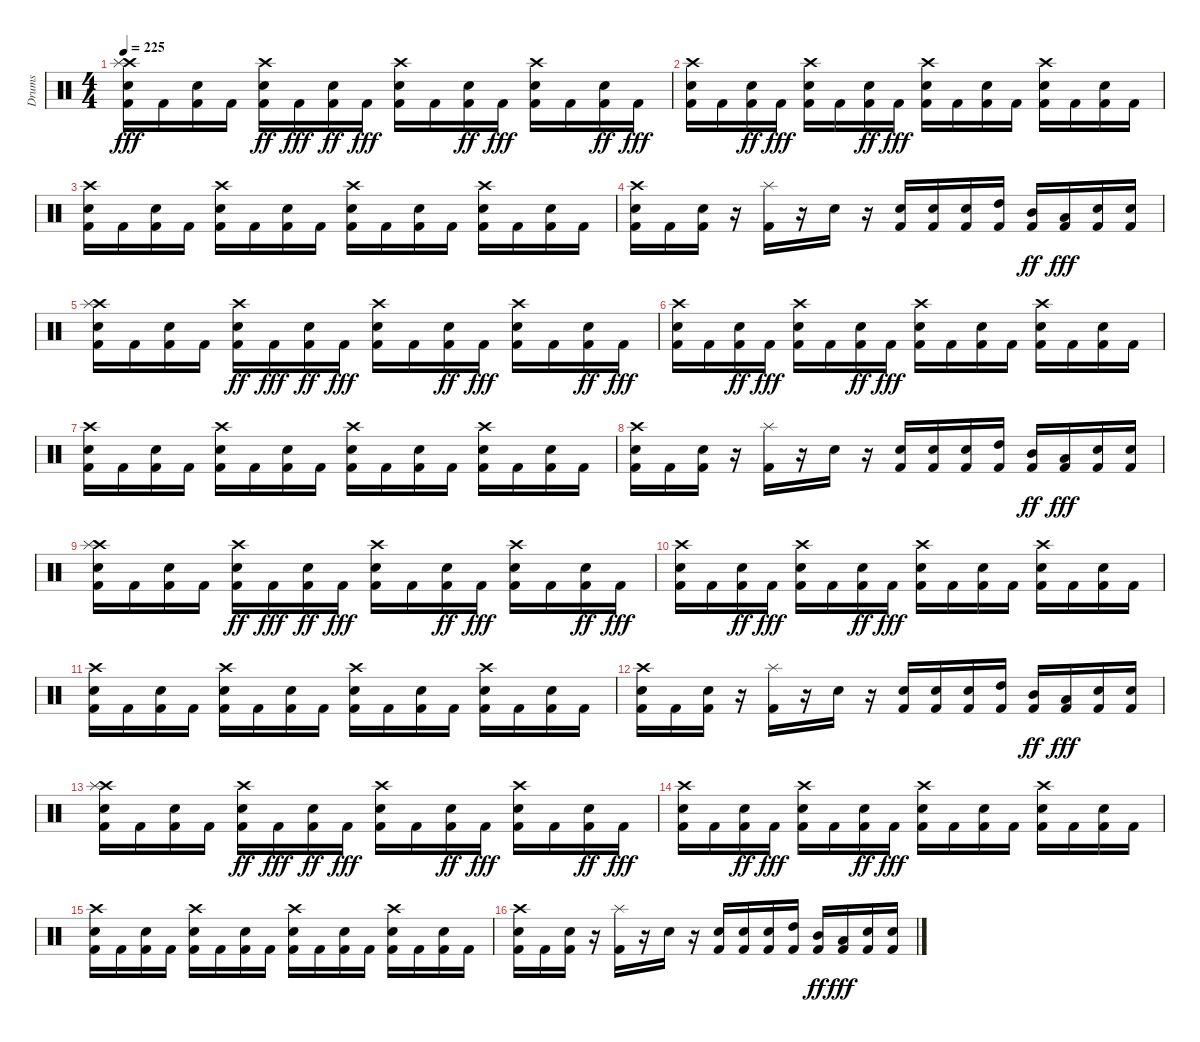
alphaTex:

\track ("Drums" "Drums") {instrument percussion}
\staff {score}
\articulation defaults
\ts (4 4)
\tempo 225
\clef neutral
\ks c
("Kick (hit) 2" "Snare (hit) 2" "Crash high (hit)" "Splash (hit)").16{dy fff} "Kick (hit) 2".16 ("Snare (hit) 2" "Kick (hit) 2").16 "Kick (hit) 2".16 ("Crash high (hit)" "Kick (hit) 2" "Snare (hit) 2").16{dy ff} "Kick (hit) 2".16{dy fff} ("Kick (hit) 2" "Snare (hit) 2").16{dy ff} "Kick (hit) 2".16{dy fff} ("Kick (hit) 2" "Snare (hit) 2" "Crash high (hit)").16 "Kick (hit) 2".16 ("Kick (hit) 2" "Snare (hit) 2").16{dy ff} "Kick (hit) 2".16{dy fff} ("Kick (hit) 2" "Snare (hit) 2" "Crash high (hit)").16 "Kick (hit) 2".16 ("Kick (hit) 2" "Snare (hit) 2").16{dy ff} "Kick (hit) 2".16{dy fff} |
("Kick (hit) 2" "Snare (hit) 2" "Crash high (hit)").16 "Kick (hit) 2".16 ("Kick (hit) 2" "Snare (hit) 2").16{dy ff} "Kick (hit) 2".16{dy fff} ("Kick (hit) 2" "Snare (hit) 2" "Crash high (hit)").16 "Kick (hit) 2".16 ("Kick (hit) 2" "Snare (hit) 2").16{dy ff} "Kick (hit) 2".16{dy fff} ("Kick (hit) 2" "Snare (hit) 2" "Crash high (hit)").16 "Kick (hit) 2".16 ("Snare (hit) 2" "Kick (hit) 2").16 "Kick (hit) 2".16 ("Crash high (hit)" "Kick (hit) 2" "Snare (hit) 2").16 "Kick (hit) 2".16 ("Snare (hit) 2" "Kick (hit) 2").16 "Kick (hit) 2".16 |
("Kick (hit) 2" "Snare (hit) 2" "Crash high (hit)").16 "Kick (hit) 2".16 ("Kick (hit) 2" "Snare (hit) 2").16 "Kick (hit) 2".16 ("Kick (hit) 2" "Snare (hit) 2" "Crash high (hit)").16 "Kick (hit) 2".16 ("Kick (hit) 2" "Snare (hit) 2").16 "Kick (hit) 2".16 ("Kick (hit) 2" "Snare (hit) 2" "Crash high (hit)").16 "Kick (hit) 2".16 ("Kick (hit) 2" "Snare (hit) 2").16 "Kick (hit) 2".16 ("Kick (hit) 2" "Snare (hit) 2" "Crash high (hit)").16 "Kick (hit) 2".16 ("Kick (hit) 2" "Snare (hit) 2").16 "Kick (hit) 2".16 |
("Kick (hit) 2" "Snare (hit) 2" "Crash high (hit)").16 "Kick (hit) 2".16 ("Kick (hit) 2" "Snare (hit) 2").16 r.16 ("Kick (hit) 2" "Splash (hit)").16 r.16 "Snare (hit) 2".16 r.16 ("Kick (hit) 2" "Snare (hit) 2").16 ("Snare (hit) 2" "Kick (hit) 2").16 ("Snare (hit) 2" "Kick (hit) 2").16 ("High Tom (hit)" "Kick (hit) 2").16 ("Mid Tom (hit)" "Kick (hit) 2").16{dy ff} ("Low Tom (hit)" "Kick (hit) 2").16{dy fff} ("Kick (hit) 2" "Snare (hit) 2").16 ("Kick (hit) 2" "Snare (hit) 2").16 |
("Kick (hit) 2" "Snare (hit) 2" "Crash high (hit)" "Splash (hit)").16 "Kick (hit) 2".16 ("Snare (hit) 2" "Kick (hit) 2").16 "Kick (hit) 2".16 ("Crash high (hit)" "Kick (hit) 2" "Snare (hit) 2").16{dy ff} "Kick (hit) 2".16{dy fff} ("Kick (hit) 2" "Snare (hit) 2").16{dy ff} "Kick (hit) 2".16{dy fff} ("Kick (hit) 2" "Snare (hit) 2" "Crash high (hit)").16 "Kick (hit) 2".16 ("Kick (hit) 2" "Snare (hit) 2").16{dy ff} "Kick (hit) 2".16{dy fff} ("Kick (hit) 2" "Snare (hit) 2" "Crash high (hit)").16 "Kick (hit) 2".16 ("Kick (hit) 2" "Snare (hit) 2").16{dy ff} "Kick (hit) 2".16{dy fff} |
("Kick (hit) 2" "Snare (hit) 2" "Crash high (hit)").16 "Kick (hit) 2".16 ("Kick (hit) 2" "Snare (hit) 2").16{dy ff} "Kick (hit) 2".16{dy fff} ("Kick (hit) 2" "Snare (hit) 2" "Crash high (hit)").16 "Kick (hit) 2".16 ("Kick (hit) 2" "Snare (hit) 2").16{dy ff} "Kick (hit) 2".16{dy fff} ("Kick (hit) 2" "Snare (hit) 2" "Crash high (hit)").16 "Kick (hit) 2".16 ("Snare (hit) 2" "Kick (hit) 2").16 "Kick (hit) 2".16 ("Crash high (hit)" "Kick (hit) 2" "Snare (hit) 2").16 "Kick (hit) 2".16 ("Snare (hit) 2" "Kick (hit) 2").16 "Kick (hit) 2".16 |
("Kick (hit) 2" "Snare (hit) 2" "Crash high (hit)").16 "Kick (hit) 2".16 ("Kick (hit) 2" "Snare (hit) 2").16 "Kick (hit) 2".16 ("Kick (hit) 2" "Snare (hit) 2" "Crash high (hit)").16 "Kick (hit) 2".16 ("Kick (hit) 2" "Snare (hit) 2").16 "Kick (hit) 2".16 ("Kick (hit) 2" "Snare (hit) 2" "Crash high (hit)").16 "Kick (hit) 2".16 ("Kick (hit) 2" "Snare (hit) 2").16 "Kick (hit) 2".16 ("Kick (hit) 2" "Snare (hit) 2" "Crash high (hit)").16 "Kick (hit) 2".16 ("Kick (hit) 2" "Snare (hit) 2").16 "Kick (hit) 2".16 |
("Kick (hit) 2" "Snare (hit) 2" "Crash high (hit)").16 "Kick (hit) 2".16 ("Kick (hit) 2" "Snare (hit) 2").16 r.16 ("Kick (hit) 2" "Splash (hit)").16 r.16 "Snare (hit) 2".16 r.16 ("Kick (hit) 2" "Snare (hit) 2").16 ("Snare (hit) 2" "Kick (hit) 2").16 ("Snare (hit) 2" "Kick (hit) 2").16 ("High Tom (hit)" "Kick (hit) 2").16 ("Mid Tom (hit)" "Kick (hit) 2").16{dy ff} ("Low Tom (hit)" "Kick (hit) 2").16{dy fff} ("Kick (hit) 2" "Snare (hit) 2").16 ("Kick (hit) 2" "Snare (hit) 2").16 |
("Kick (hit) 2" "Snare (hit) 2" "Crash high (hit)" "Splash (hit)").16 "Kick (hit) 2".16 ("Snare (hit) 2" "Kick (hit) 2").16 "Kick (hit) 2".16 ("Crash high (hit)" "Kick (hit) 2" "Snare (hit) 2").16{dy ff} "Kick (hit) 2".16{dy fff} ("Kick (hit) 2" "Snare (hit) 2").16{dy ff} "Kick (hit) 2".16{dy fff} ("Kick (hit) 2" "Snare (hit) 2" "Crash high (hit)").16 "Kick (hit) 2".16 ("Kick (hit) 2" "Snare (hit) 2").16{dy ff} "Kick (hit) 2".16{dy fff} ("Kick (hit) 2" "Snare (hit) 2" "Crash high (hit)").16 "Kick (hit) 2".16 ("Kick (hit) 2" "Snare (hit) 2").16{dy ff} "Kick (hit) 2".16{dy fff} |
("Kick (hit) 2" "Snare (hit) 2" "Crash high (hit)").16 "Kick (hit) 2".16 ("Kick (hit) 2" "Snare (hit) 2").16{dy ff} "Kick (hit) 2".16{dy fff} ("Kick (hit) 2" "Snare (hit) 2" "Crash high (hit)").16 "Kick (hit) 2".16 ("Kick (hit) 2" "Snare (hit) 2").16{dy ff} "Kick (hit) 2".16{dy fff} ("Kick (hit) 2" "Snare (hit) 2" "Crash high (hit)").16 "Kick (hit) 2".16 ("Snare (hit) 2" "Kick (hit) 2").16 "Kick (hit) 2".16 ("Crash high (hit)" "Kick (hit) 2" "Snare (hit) 2").16 "Kick (hit) 2".16 ("Snare (hit) 2" "Kick (hit) 2").16 "Kick (hit) 2".16 |
("Kick (hit) 2" "Snare (hit) 2" "Crash high (hit)").16 "Kick (hit) 2".16 ("Kick (hit) 2" "Snare (hit) 2").16 "Kick (hit) 2".16 ("Kick (hit) 2" "Snare (hit) 2" "Crash high (hit)").16 "Kick (hit) 2".16 ("Kick (hit) 2" "Snare (hit) 2").16 "Kick (hit) 2".16 ("Kick (hit) 2" "Snare (hit) 2" "Crash high (hit)").16 "Kick (hit) 2".16 ("Kick (hit) 2" "Snare (hit) 2").16 "Kick (hit) 2".16 ("Kick (hit) 2" "Snare (hit) 2" "Crash high (hit)").16 "Kick (hit) 2".16 ("Kick (hit) 2" "Snare (hit) 2").16 "Kick (hit) 2".16 |
("Kick (hit) 2" "Snare (hit) 2" "Crash high (hit)").16 "Kick (hit) 2".16 ("Kick (hit) 2" "Snare (hit) 2").16 r.16 ("Kick (hit) 2" "Splash (hit)").16 r.16 "Snare (hit) 2".16 r.16 ("Kick (hit) 2" "Snare (hit) 2").16 ("Snare (hit) 2" "Kick (hit) 2").16 ("Snare (hit) 2" "Kick (hit) 2").16 ("High Tom (hit)" "Kick (hit) 2").16 ("Mid Tom (hit)" "Kick (hit) 2").16{dy ff} ("Low Tom (hit)" "Kick (hit) 2").16{dy fff} ("Kick (hit) 2" "Snare (hit) 2").16 ("Kick (hit) 2" "Snare (hit) 2").16 |
("Kick (hit) 2" "Snare (hit) 2" "Crash high (hit)" "Splash (hit)").16 "Kick (hit) 2".16 ("Snare (hit) 2" "Kick (hit) 2").16 "Kick (hit) 2".16 ("Crash high (hit)" "Kick (hit) 2" "Snare (hit) 2").16{dy ff} "Kick (hit) 2".16{dy fff} ("Kick (hit) 2" "Snare (hit) 2").16{dy ff} "Kick (hit) 2".16{dy fff} ("Kick (hit) 2" "Snare (hit) 2" "Crash high (hit)").16 "Kick (hit) 2".16 ("Kick (hit) 2" "Snare (hit) 2").16{dy ff} "Kick (hit) 2".16{dy fff} ("Kick (hit) 2" "Snare (hit) 2" "Crash high (hit)").16 "Kick (hit) 2".16 ("Kick (hit) 2" "Snare (hit) 2").16{dy ff} "Kick (hit) 2".16{dy fff} |
("Kick (hit) 2" "Snare (hit) 2" "Crash high (hit)").16 "Kick (hit) 2".16 ("Kick (hit) 2" "Snare (hit) 2").16{dy ff} "Kick (hit) 2".16{dy fff} ("Kick (hit) 2" "Snare (hit) 2" "Crash high (hit)").16 "Kick (hit) 2".16 ("Kick (hit) 2" "Snare (hit) 2").16{dy ff} "Kick (hit) 2".16{dy fff} ("Kick (hit) 2" "Snare (hit) 2" "Crash high (hit)").16 "Kick (hit) 2".16 ("Snare (hit) 2" "Kick (hit) 2").16 "Kick (hit) 2".16 ("Crash high (hit)" "Kick (hit) 2" "Snare (hit) 2").16 "Kick (hit) 2".16 ("Snare (hit) 2" "Kick (hit) 2").16 "Kick (hit) 2".16 |
("Kick (hit) 2" "Snare (hit) 2" "Crash high (hit)").16 "Kick (hit) 2".16 ("Kick (hit) 2" "Snare (hit) 2").16 "Kick (hit) 2".16 ("Kick (hit) 2" "Snare (hit) 2" "Crash high (hit)").16 "Kick (hit) 2".16 ("Kick (hit) 2" "Snare (hit) 2").16 "Kick (hit) 2".16 ("Kick (hit) 2" "Snare (hit) 2" "Crash high (hit)").16 "Kick (hit) 2".16 ("Kick (hit) 2" "Snare (hit) 2").16 "Kick (hit) 2".16 ("Kick (hit) 2" "Snare (hit) 2" "Crash high (hit)").16 "Kick (hit) 2".16 ("Kick (hit) 2" "Snare (hit) 2").16 "Kick (hit) 2".16 |
("Kick (hit) 2" "Snare (hit) 2" "Crash high (hit)").16 "Kick (hit) 2".16 ("Kick (hit) 2" "Snare (hit) 2").16 r.16 ("Kick (hit) 2" "Splash (hit)").16 r.16 "Snare (hit) 2".16 r.16 ("Kick (hit) 2" "Snare (hit) 2").16 ("Snare (hit) 2" "Kick (hit) 2").16 ("Snare (hit) 2" "Kick (hit) 2").16 ("High Tom (hit)" "Kick (hit) 2").16 ("Mid Tom (hit)" "Kick (hit) 2").16{dy ff} ("Low Tom (hit)" "Kick (hit) 2").16{dy fff} ("Kick (hit) 2" "Snare (hit) 2").16 ("Kick (hit) 2" "Snare (hit) 2").16
